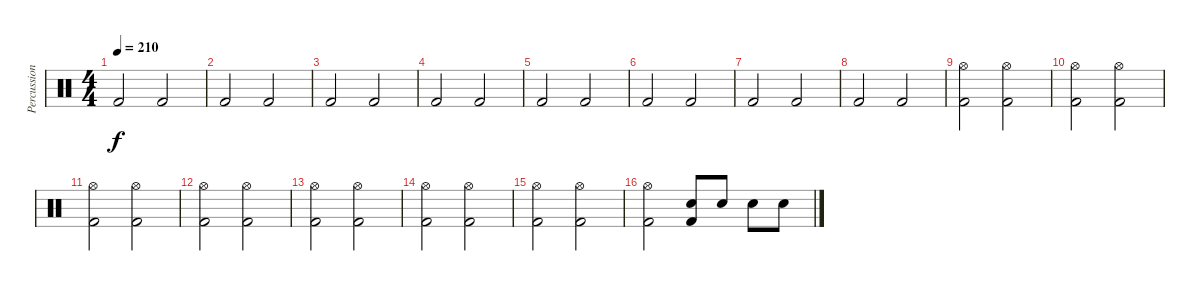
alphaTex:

\track ("Percussion" "Percussion") {instrument percussion}
\staff {score}
\articulation defaults
\ts (4 4)
\tempo 210
\clef neutral
\ks c "Kick (hit) 2".2{dy f} "Kick (hit) 2".2
|
"Kick (hit) 2".2 "Kick (hit) 2".2 |
"Kick (hit) 2".2 "Kick (hit) 2".2 |
"Kick (hit) 2".2 "Kick (hit) 2".2 |
"Kick (hit) 2".2 "Kick (hit) 2".2 |
"Kick (hit) 2".2 "Kick (hit) 2".2 |
"Kick (hit) 2".2 "Kick (hit) 2".2 |
"Kick (hit) 2".2 "Kick (hit) 2".2 |
("Hi-Hat (open)" "Kick (hit) 2").2 ("Hi-Hat (open)" "Kick (hit) 2").2 |
("Hi-Hat (open)" "Kick (hit) 2").2 ("Hi-Hat (open)" "Kick (hit) 2").2 |
("Hi-Hat (open)" "Kick (hit) 2").2 ("Hi-Hat (open)" "Kick (hit) 2").2 |
("Hi-Hat (open)" "Kick (hit) 2").2 ("Hi-Hat (open)" "Kick (hit) 2").2 |
("Hi-Hat (open)" "Kick (hit) 2").2 ("Hi-Hat (open)" "Kick (hit) 2").2 |
("Hi-Hat (open)" "Kick (hit) 2").2 ("Hi-Hat (open)" "Kick (hit) 2").2 |
("Hi-Hat (open)" "Kick (hit) 2").2 ("Hi-Hat (open)" "Kick (hit) 2").2 |
("Hi-Hat (open)" "Kick (hit) 2").2 ("Electric Snare (hit)" "Kick (hit) 2").8 "Electric Snare (hit)".8 "Electric Snare (hit)".8 "Electric Snare (hit)".8
